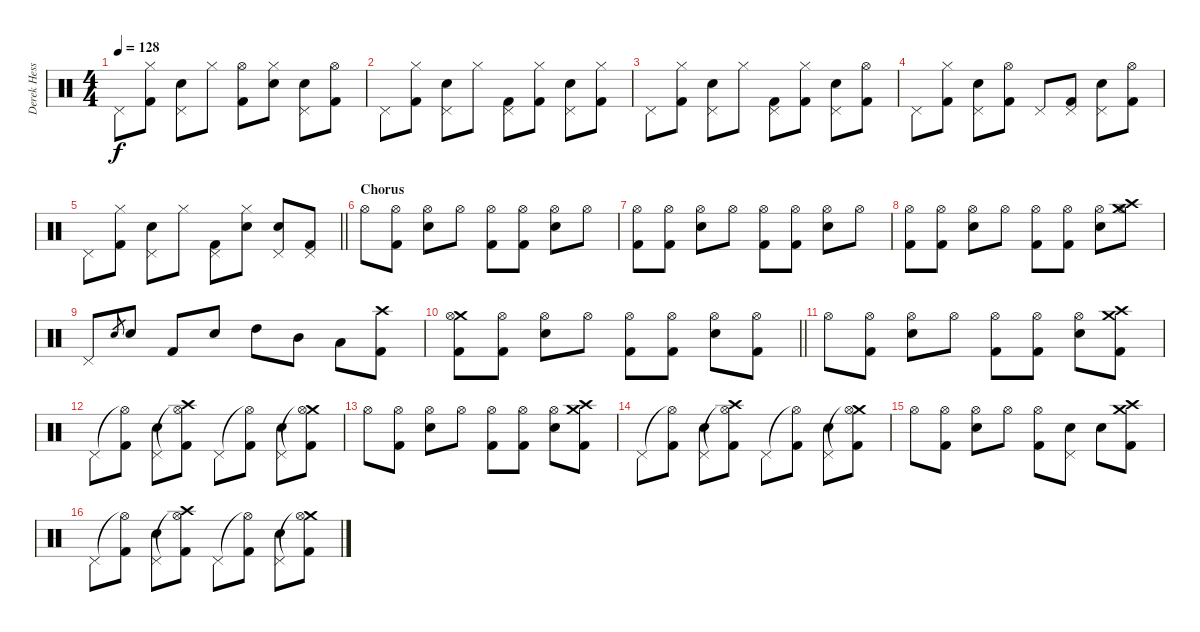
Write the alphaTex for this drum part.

\track ("Derek Hess (Drums and Percussion)" "Derek Hess") {instrument percussion}
\staff {score}
\articulation defaults
\ts (4 4)
\tempo 128
\clef neutral
\ks c "Pedal Hi-Hat (hit)".8{dy f}
("Hi-Hat (closed)" "Kick (hit) 2").8 ("Snare (hit) 2" "Pedal Hi-Hat (hit)").8 "Hi-Hat (closed)".8 ("Hi-Hat (open)" "Kick (hit) 2").8 ("Snare (hit) 2" "Hi-Hat (closed)").8 ("Snare (hit) 2" "Pedal Hi-Hat (hit)").8 ("Hi-Hat (open)" "Kick (hit) 2").8 |
"Pedal Hi-Hat (hit)".8 ("Hi-Hat (closed)" "Kick (hit) 2").8 ("Snare (hit) 2" "Pedal Hi-Hat (hit)").8 "Hi-Hat (closed)".8 ("Pedal Hi-Hat (hit)" "Kick (hit) 2").8 ("Hi-Hat (closed)" "Kick (hit) 2").8 ("Snare (hit) 2" "Pedal Hi-Hat (hit)").8 ("Hi-Hat (closed)" "Kick (hit) 2").8 |
"Pedal Hi-Hat (hit)".8 ("Hi-Hat (closed)" "Kick (hit) 2").8 ("Snare (hit) 2" "Pedal Hi-Hat (hit)").8 "Hi-Hat (closed)".8 ("Pedal Hi-Hat (hit)" "Kick (hit) 2").8 ("Hi-Hat (closed)" "Kick (hit) 2").8 ("Snare (hit) 2" "Pedal Hi-Hat (hit)").8 ("Hi-Hat (open)" "Kick (hit) 2").8 |
"Pedal Hi-Hat (hit)".8 ("Hi-Hat (closed)" "Kick (hit) 2").8 ("Snare (hit) 2" "Pedal Hi-Hat (hit)").8 ("Hi-Hat (open)" "Kick (hit) 2").8 "Pedal Hi-Hat (hit)".8 ("Pedal Hi-Hat (hit)" "Kick (hit) 2").8 ("Snare (hit) 2" "Pedal Hi-Hat (hit)").8 ("Hi-Hat (open)" "Kick (hit) 2").8 |
\barLineRight lightlight "Pedal Hi-Hat (hit)".8
("Hi-Hat (closed)" "Kick (hit) 2").8 ("Snare (hit) 2" "Pedal Hi-Hat (hit)").8 "Hi-Hat (closed)".8 ("Pedal Hi-Hat (hit)" "Kick (hit) 2").8 ("Snare (hit) 2" "Hi-Hat (closed)").8 ("Snare (hit) 2" "Pedal Hi-Hat (hit)").8 ("Pedal Hi-Hat (hit)" "Kick (hit) 2").8 |
\section ("" "Chorus")
"Hi-Hat (open)".8 ("Hi-Hat (open)" "Kick (hit) 2").8 ("Snare (hit) 2" "Hi-Hat (open)").8 "Hi-Hat (open)".8 ("Hi-Hat (open)" "Kick (hit) 2").8 ("Hi-Hat (open)" "Kick (hit) 2").8 ("Snare (hit) 2" "Hi-Hat (open)").8 "Hi-Hat (open)".8 |
("Hi-Hat (open)" "Kick (hit) 2").8 ("Hi-Hat (open)" "Kick (hit) 2").8 ("Snare (hit) 2" "Hi-Hat (open)").8 "Hi-Hat (open)".8 ("Hi-Hat (open)" "Kick (hit) 2").8 ("Hi-Hat (open)" "Kick (hit) 2").8 ("Snare (hit) 2" "Hi-Hat (open)").8 "Hi-Hat (open)".8 |
("Hi-Hat (open)" "Kick (hit) 2").8 ("Hi-Hat (open)" "Kick (hit) 2").8 ("Snare (hit) 2" "Hi-Hat (open)").8 "Hi-Hat (open)".8 ("Hi-Hat (open)" "Kick (hit) 2").8 ("Hi-Hat (open)" "Kick (hit) 2").8 ("Snare (hit) 2" "Hi-Hat (open)").8 ("Crash medium (hit)" "Crash high (hit)" "Hi-Hat (open)").8 |
"Pedal Hi-Hat (hit)".8 "Snare (hit) 2".8{gr} "Snare (hit) 2".8 "Kick (hit) 2".8 "Snare (hit) 2".8 "High Tom (hit)".8 "Mid Tom (hit)".8 "Low Tom (hit)".8 ("Crash high (hit)" "Kick (hit) 2").8 |
\barLineRight lightlight
("Crash medium (hit)" "Hi-Hat (open)" "Kick (hit) 2").8 ("Hi-Hat (open)" "Kick (hit) 2").8 ("Snare (hit) 2" "Hi-Hat (open)").8 "Hi-Hat (open)".8 ("Hi-Hat (open)" "Kick (hit) 2").8 ("Hi-Hat (open)" "Kick (hit) 2").8 ("Snare (hit) 2" "Hi-Hat (open)").8 ("Hi-Hat (open)" "Kick (hit) 2").8 |
"Hi-Hat (open)".8 ("Hi-Hat (open)" "Kick (hit) 2").8 ("Snare (hit) 2" "Hi-Hat (open)").8 "Hi-Hat (open)".8 ("Hi-Hat (open)" "Kick (hit) 2").8 ("Hi-Hat (open)" "Kick (hit) 2").8 ("Snare (hit) 2" "Hi-Hat (open)").8 ("Crash medium (hit)" "Crash high (hit)" "Kick (hit) 2").8 |
"Pedal Hi-Hat (hit)".8 ("Hi-Hat (open)"{t} "Kick (hit) 2").8 ("Snare (hit) 2" "Pedal Hi-Hat (hit)").8 ("Crash high (hit)" "Hi-Hat (open)"{t} "Kick (hit) 2").8 "Pedal Hi-Hat (hit)".8 ("Hi-Hat (open)"{t} "Kick (hit) 2").8 ("Snare (hit) 2" "Pedal Hi-Hat (hit)").8 ("Crash medium (hit)" "Hi-Hat (open)"{t} "Kick (hit) 2").8 |
"Hi-Hat (open)".8 ("Hi-Hat (open)" "Kick (hit) 2").8 ("Snare (hit) 2" "Hi-Hat (open)").8 "Hi-Hat (open)".8 ("Hi-Hat (open)" "Kick (hit) 2").8 ("Hi-Hat (open)" "Kick (hit) 2").8 ("Snare (hit) 2" "Hi-Hat (open)").8 ("Crash medium (hit)" "Crash high (hit)" "Kick (hit) 2").8 |
"Pedal Hi-Hat (hit)".8 ("Hi-Hat (open)"{t} "Kick (hit) 2").8 ("Snare (hit) 2" "Pedal Hi-Hat (hit)").8 ("Crash high (hit)" "Hi-Hat (open)"{t} "Kick (hit) 2").8 "Pedal Hi-Hat (hit)".8 ("Hi-Hat (open)"{t} "Kick (hit) 2").8 ("Snare (hit) 2" "Pedal Hi-Hat (hit)").8 ("Crash medium (hit)" "Hi-Hat (open)"{t} "Kick (hit) 2").8 |
"Hi-Hat (open)".8 ("Hi-Hat (open)" "Kick (hit) 2").8 ("Snare (hit) 2" "Hi-Hat (open)").8 "Hi-Hat (open)".8 ("Hi-Hat (open)" "Kick (hit) 2").8 ("Snare (hit) 2" "Pedal Hi-Hat (hit)").8 "Snare (hit) 2".8 ("Crash medium (hit)" "Crash high (hit)" "Kick (hit) 2").8 |
"Pedal Hi-Hat (hit)".8 ("Hi-Hat (open)"{t} "Kick (hit) 2").8 ("Snare (hit) 2" "Pedal Hi-Hat (hit)").8 ("Crash high (hit)" "Hi-Hat (open)"{t} "Kick (hit) 2").8 "Pedal Hi-Hat (hit)".8 ("Hi-Hat (open)"{t} "Kick (hit) 2").8 ("Snare (hit) 2" "Pedal Hi-Hat (hit)").8 ("Crash medium (hit)" "Hi-Hat (open)"{t} "Kick (hit) 2").8
